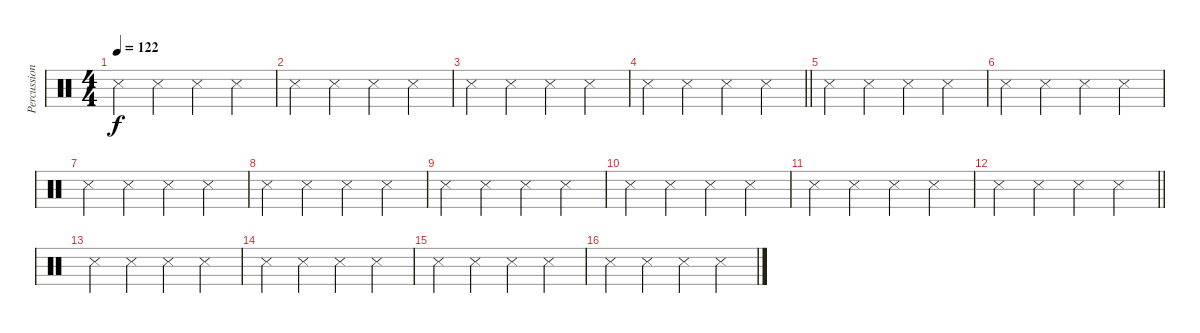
\track ("Percussion" "Percussion") {instrument percussion}
\staff {score}
\articulation defaults
\ts (4 4)
\tempo 122
\clef neutral
\ks c "Snare (side stick) 3".4{dy f} "Metronome (hit)".4 "Metronome (hit)".4 "Metronome (hit)".4
|
"Snare (side stick) 3".4 "Metronome (hit)".4 "Metronome (hit)".4 "Metronome (hit)".4 |
"Snare (side stick) 3".4 "Metronome (hit)".4 "Metronome (hit)".4 "Metronome (hit)".4 |
\barLineRight lightlight "Snare (side stick) 3".4 "Metronome (hit)".4 "Metronome (hit)".4 "Metronome (hit)".4
|
"Snare (side stick) 3".4 "Metronome (hit)".4 "Metronome (hit)".4 "Metronome (hit)".4 |
"Snare (side stick) 3".4 "Metronome (hit)".4 "Metronome (hit)".4 "Metronome (hit)".4 |
"Snare (side stick) 3".4 "Metronome (hit)".4 "Metronome (hit)".4 "Metronome (hit)".4 |
"Snare (side stick) 3".4 "Metronome (hit)".4 "Metronome (hit)".4 "Metronome (hit)".4 |
"Snare (side stick) 3".4 "Metronome (hit)".4 "Metronome (hit)".4 "Metronome (hit)".4 |
"Snare (side stick) 3".4 "Metronome (hit)".4 "Metronome (hit)".4 "Metronome (hit)".4 |
"Snare (side stick) 3".4 "Metronome (hit)".4 "Metronome (hit)".4 "Metronome (hit)".4 |
\barLineRight lightlight "Snare (side stick) 3".4 "Metronome (hit)".4 "Metronome (hit)".4 "Metronome (hit)".4
|
"Snare (side stick) 3".4 "Metronome (hit)".4 "Metronome (hit)".4 "Metronome (hit)".4 |
"Snare (side stick) 3".4 "Metronome (hit)".4 "Metronome (hit)".4 "Metronome (hit)".4 |
"Snare (side stick) 3".4 "Metronome (hit)".4 "Metronome (hit)".4 "Metronome (hit)".4 |
"Snare (side stick) 3".4 "Metronome (hit)".4 "Metronome (hit)".4 "Metronome (hit)".4
